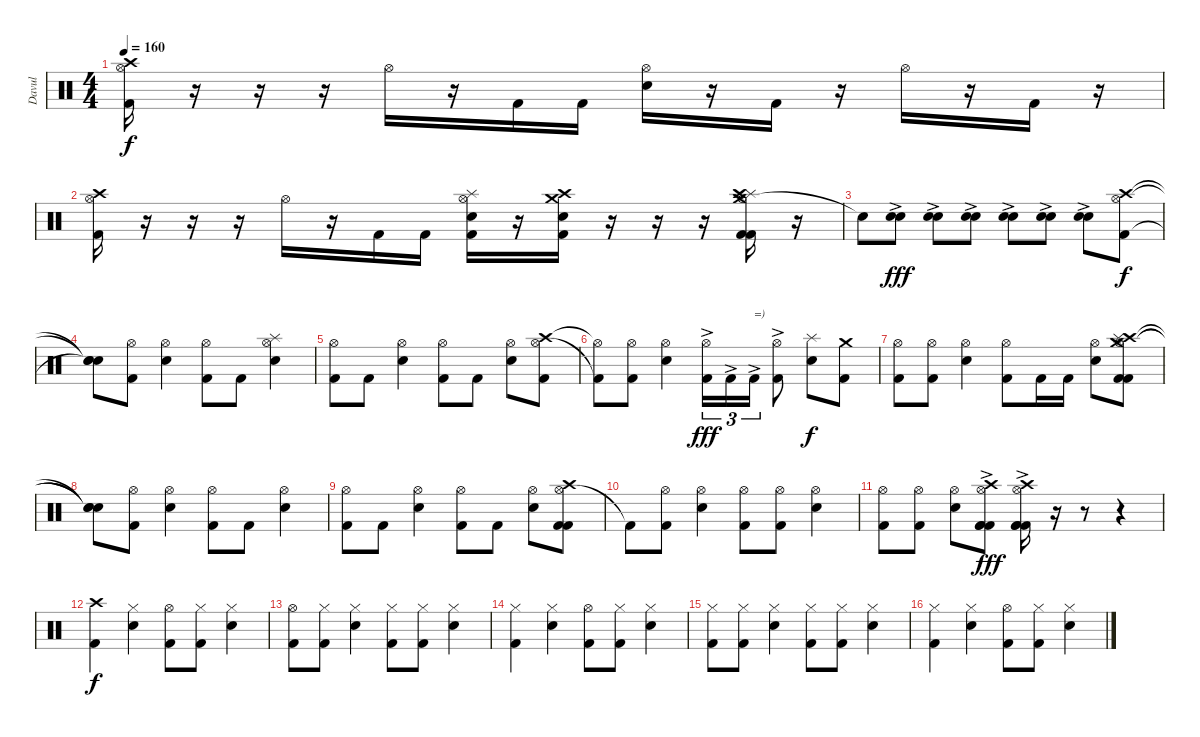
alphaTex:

\track ("Davul" "Davul") {instrument percussion}
\staff {score}
\articulation defaults
\ts (4 4)
\tempo 160
\clef neutral
\ks c
("Hi-Hat (open)" "Crash high (hit)" "Kick (hit) 2").16{dy f} r.16 r.16 r.16 "Hi-Hat (open)".16 r.16 "Kick (hit) 2".16 "Kick (hit) 2".16 ("Hi-Hat (open)" "Electric Snare (hit)").16 r.16 "Kick (hit) 2".16 r.16 "Hi-Hat (open)".16 r.16 "Kick (hit) 2".16 r.16 |
("Hi-Hat (open)" "Crash high (hit)" "Kick (hit) 2").16 r.16 r.16 r.16 "Hi-Hat (open)".16 r.16 "Kick (hit) 2".16 "Kick (hit) 2".16 ("Hi-Hat (open)" "Splash (hit)" "Kick (hit) 2" "Electric Snare (hit)").16 r.16 ("Crash high (hit)" "Crash medium (hit)" "Kick (hit) 2" "Electric Snare (hit)").16 r.16 r.16 r.16 ("Crash medium (hit)" "Splash (hit)" "Hi-Hat (open)" "Crash high (hit)" "Kick (hit) 2" "Kick (hit) 2").16 r.16 |
"Electric Snare (hit)"{t}.8 ("Electric Snare (hit)"{ac} "Electric Snare (hit)"{ac}).8{dy fff} ("Electric Snare (hit)"{ac} "Electric Snare (hit)"{ac}).8 ("Electric Snare (hit)"{ac} "Electric Snare (hit)"{ac}).8 ("Electric Snare (hit)"{ac} "Electric Snare (hit)"{ac}).8 ("Electric Snare (hit)"{ac} "Electric Snare (hit)"{ac}).8 ("Electric Snare (hit)"{ac} "Electric Snare (hit)"{ac}).8 ("Hi-Hat (open)" "Crash high (hit)" "Kick (hit) 2").8{dy f} |
("Snare (hit)"{t} "Snare (hit)"{t} "Snare (hit)"{t}).8 ("Hi-Hat (open)" "Kick (hit) 2").8 ("Hi-Hat (open)" "Electric Snare (hit)").4 ("Hi-Hat (open)" "Kick (hit) 2").8 "Kick (hit) 2".8 ("Splash (hit)" "Hi-Hat (open)" "Electric Snare (hit)").4 |
("Hi-Hat (open)" "Kick (hit) 2").8 "Kick (hit) 2".8 ("Hi-Hat (open)" "Electric Snare (hit)").4 ("Hi-Hat (open)" "Kick (hit) 2").8 "Kick (hit) 2".8 ("Hi-Hat (open)" "Electric Snare (hit)").8 ("Crash high (hit)" "Hi-Hat (open)" "Kick (hit) 2").8 |
("Hi-Hat (open)"{t} "Kick (hit) 2"{t}).8 ("Hi-Hat (open)" "Kick (hit) 2").8 ("Hi-Hat (open)" "Electric Snare (hit)").4 ("Hi-Hat (open)" "Kick (hit) 2"{ac}).16{tu (3 2) dy fff} "Kick (hit) 2"{ac}.16{tu (3 2)} "Kick (hit) 2"{ac}.16{tu (3 2) txt "=)"} ("Hi-Hat (open)" "Kick (hit) 2"{ac}).8 ("Splash (hit)" "Electric Snare (hit)").8{dy f} ("Crash medium (hit)" "Kick (hit) 2").8 |
("Hi-Hat (open)" "Kick (hit) 2").8 ("Hi-Hat (open)" "Kick (hit) 2").8 ("Hi-Hat (open)" "Electric Snare (hit)").4 ("Hi-Hat (open)" "Kick (hit) 2").8 "Kick (hit) 2".16 "Kick (hit) 2".16 ("Hi-Hat (open)" "Electric Snare (hit)").8 ("Hi-Hat (open)" "Crash high (hit)" "Crash medium (hit)" "Splash (hit)" "Kick (hit) 2" "Kick (hit) 2").8 |
("Snare (hit)"{t} "Snare (hit)"{t} "Snare (hit)"{t}).8 ("Hi-Hat (open)" "Kick (hit) 2").8 ("Hi-Hat (open)" "Electric Snare (hit)").4 ("Hi-Hat (open)" "Kick (hit) 2").8 "Kick (hit) 2".8 ("Hi-Hat (open)" "Electric Snare (hit)").4 |
("Hi-Hat (open)" "Kick (hit) 2").8 "Kick (hit) 2".8 ("Hi-Hat (open)" "Electric Snare (hit)").4 ("Hi-Hat (open)" "Kick (hit) 2").8 "Kick (hit) 2".8 ("Hi-Hat (open)" "Electric Snare (hit)").8 ("Hi-Hat (open)" "Crash high (hit)" "Kick (hit) 2" "Kick (hit) 2").8 |
"Kick (hit) 2"{t}.8 ("Hi-Hat (open)" "Kick (hit) 2").8 ("Hi-Hat (open)" "Electric Snare (hit)").4 ("Hi-Hat (open)" "Kick (hit) 2").8 ("Hi-Hat (open)" "Kick (hit) 2").8 ("Hi-Hat (open)" "Electric Snare (hit)").4 |
("Hi-Hat (open)" "Kick (hit) 2").8 ("Hi-Hat (open)" "Kick (hit) 2").8 ("Hi-Hat (open)" "Electric Snare (hit)").8 ("Hi-Hat (open)" "Crash high (hit)" "Kick (hit) 2"{ac} "Kick (hit) 2"{ac} "Kick (hit) 2"{ac}).8{dy fff} ("Hi-Hat (open)" "Crash high (hit)" "Kick (hit) 2"{ac} "Kick (hit) 2"{ac} "Kick (hit) 2"{ac}).16 r.16 r.8 r.4 |
("Crash high (hit)" "Kick (hit) 2").4{dy f} ("Hi-Hat (closed)" "Electric Snare (hit)").4 ("Hi-Hat (open)" "Kick (hit) 2").8 ("Hi-Hat (closed)" "Kick (hit) 2").8 ("Hi-Hat (closed)" "Electric Snare (hit)").4 |
("Hi-Hat (open)" "Kick (hit) 2").8 ("Hi-Hat (closed)" "Kick (hit) 2").8 ("Hi-Hat (closed)" "Electric Snare (hit)").4 ("Hi-Hat (closed)" "Kick (hit) 2").8 ("Hi-Hat (closed)" "Kick (hit) 2").8 ("Hi-Hat (closed)" "Electric Snare (hit)").4 |
("Hi-Hat (closed)" "Kick (hit) 2").4 ("Hi-Hat (closed)" "Electric Snare (hit)").4 ("Hi-Hat (open)" "Kick (hit) 2").8 ("Hi-Hat (closed)" "Kick (hit) 2").8 ("Hi-Hat (closed)" "Electric Snare (hit)").4 |
("Hi-Hat (closed)" "Kick (hit) 2").8 ("Hi-Hat (closed)" "Kick (hit) 2").8 ("Hi-Hat (closed)" "Electric Snare (hit)").4 ("Hi-Hat (closed)" "Kick (hit) 2").8 ("Hi-Hat (closed)" "Kick (hit) 2").8 ("Hi-Hat (closed)" "Electric Snare (hit)").4 |
("Hi-Hat (closed)" "Kick (hit) 2").4 ("Hi-Hat (closed)" "Electric Snare (hit)").4 ("Hi-Hat (open)" "Kick (hit) 2").8 ("Hi-Hat (closed)" "Kick (hit) 2").8 ("Hi-Hat (closed)" "Electric Snare (hit)").4
